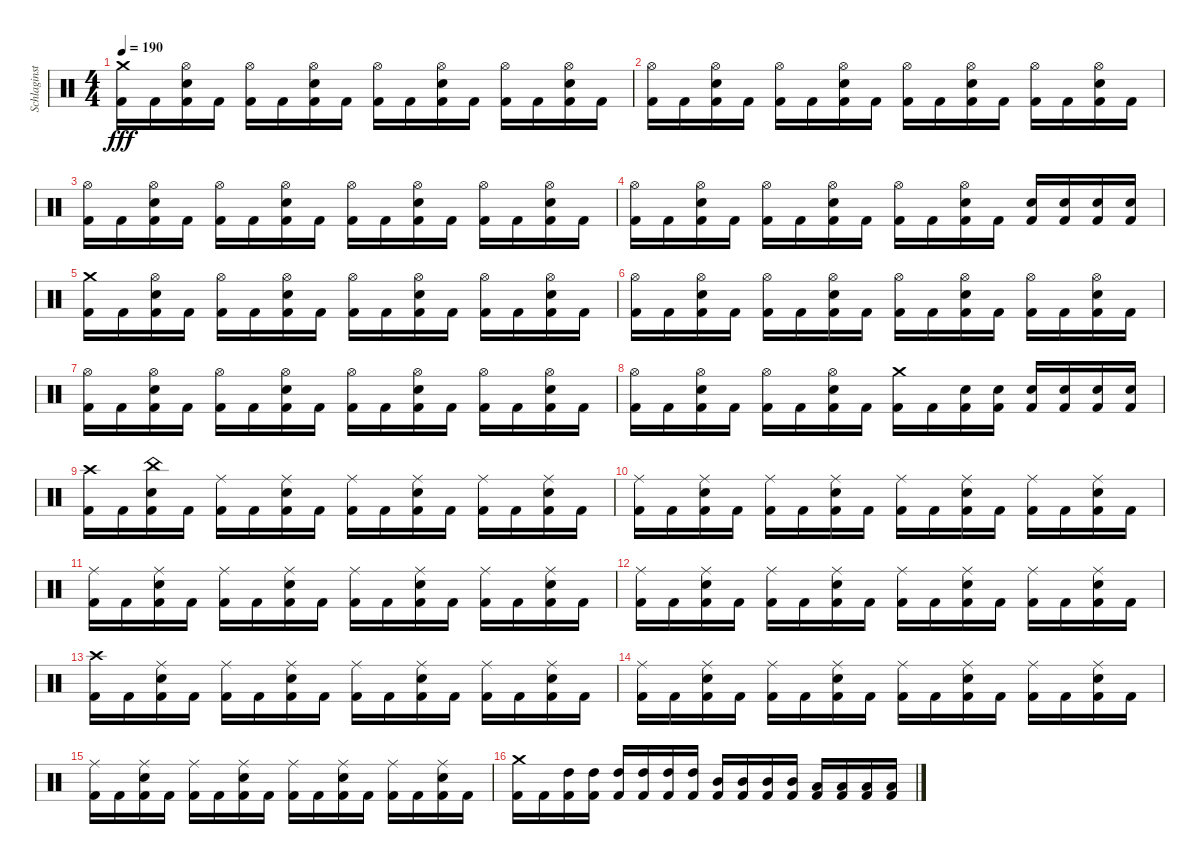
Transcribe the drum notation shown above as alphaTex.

\track ("Schlaginstrumente - Auswahl" "Schlaginst") {instrument percussion}
\staff {score}
\articulation defaults
\ts (4 4)
\tempo 190
\clef neutral
\ks c
("Crash medium (hit)" "Kick (hit) 2").16{dy fff} "Kick (hit) 2".16 ("Hi-Hat (open)" "Snare (hit) 2" "Kick (hit) 2").16 "Kick (hit) 2".16 ("Hi-Hat (open)" "Kick (hit) 2").16 "Kick (hit) 2".16 ("Hi-Hat (open)" "Snare (hit) 2" "Kick (hit) 2").16 "Kick (hit) 2".16 ("Hi-Hat (open)" "Kick (hit) 2").16 "Kick (hit) 2".16 ("Hi-Hat (open)" "Snare (hit) 2" "Kick (hit) 2").16 "Kick (hit) 2".16 ("Hi-Hat (open)" "Kick (hit) 2").16 "Kick (hit) 2".16 ("Hi-Hat (open)" "Snare (hit) 2" "Kick (hit) 2").16 "Kick (hit) 2".16 |
("Hi-Hat (open)" "Kick (hit) 2").16 "Kick (hit) 2".16 ("Hi-Hat (open)" "Snare (hit) 2" "Kick (hit) 2").16 "Kick (hit) 2".16 ("Hi-Hat (open)" "Kick (hit) 2").16 "Kick (hit) 2".16 ("Hi-Hat (open)" "Snare (hit) 2" "Kick (hit) 2").16 "Kick (hit) 2".16 ("Hi-Hat (open)" "Kick (hit) 2").16 "Kick (hit) 2".16 ("Hi-Hat (open)" "Snare (hit) 2" "Kick (hit) 2").16 "Kick (hit) 2".16 ("Hi-Hat (open)" "Kick (hit) 2").16 "Kick (hit) 2".16 ("Hi-Hat (open)" "Snare (hit) 2" "Kick (hit) 2").16 "Kick (hit) 2".16 |
("Hi-Hat (open)" "Kick (hit) 2").16 "Kick (hit) 2".16 ("Hi-Hat (open)" "Snare (hit) 2" "Kick (hit) 2").16 "Kick (hit) 2".16 ("Hi-Hat (open)" "Kick (hit) 2").16 "Kick (hit) 2".16 ("Hi-Hat (open)" "Snare (hit) 2" "Kick (hit) 2").16 "Kick (hit) 2".16 ("Hi-Hat (open)" "Kick (hit) 2").16 "Kick (hit) 2".16 ("Hi-Hat (open)" "Snare (hit) 2" "Kick (hit) 2").16 "Kick (hit) 2".16 ("Hi-Hat (open)" "Kick (hit) 2").16 "Kick (hit) 2".16 ("Hi-Hat (open)" "Snare (hit) 2" "Kick (hit) 2").16 "Kick (hit) 2".16 |
("Hi-Hat (open)" "Kick (hit) 2").16 "Kick (hit) 2".16 ("Hi-Hat (open)" "Snare (hit) 2" "Kick (hit) 2").16 "Kick (hit) 2".16 ("Hi-Hat (open)" "Kick (hit) 2").16 "Kick (hit) 2".16 ("Hi-Hat (open)" "Snare (hit) 2" "Kick (hit) 2").16 "Kick (hit) 2".16 ("Hi-Hat (open)" "Kick (hit) 2").16 "Kick (hit) 2".16 ("Hi-Hat (open)" "Snare (hit) 2" "Kick (hit) 2").16 "Kick (hit) 2".16 ("Snare (hit) 2" "Kick (hit) 2").16 ("Snare (hit) 2" "Kick (hit) 2").16 ("Snare (hit) 2" "Kick (hit) 2").16 ("Snare (hit) 2" "Kick (hit) 2").16 |
("Crash medium (hit)" "Kick (hit) 2").16 "Kick (hit) 2".16 ("Hi-Hat (open)" "Snare (hit) 2" "Kick (hit) 2").16 "Kick (hit) 2".16 ("Hi-Hat (open)" "Kick (hit) 2").16 "Kick (hit) 2".16 ("Hi-Hat (open)" "Snare (hit) 2" "Kick (hit) 2").16 "Kick (hit) 2".16 ("Hi-Hat (open)" "Kick (hit) 2").16 "Kick (hit) 2".16 ("Hi-Hat (open)" "Snare (hit) 2" "Kick (hit) 2").16 "Kick (hit) 2".16 ("Hi-Hat (open)" "Kick (hit) 2").16 "Kick (hit) 2".16 ("Hi-Hat (open)" "Snare (hit) 2" "Kick (hit) 2").16 "Kick (hit) 2".16 |
("Hi-Hat (open)" "Kick (hit) 2").16 "Kick (hit) 2".16 ("Hi-Hat (open)" "Snare (hit) 2" "Kick (hit) 2").16 "Kick (hit) 2".16 ("Hi-Hat (open)" "Kick (hit) 2").16 "Kick (hit) 2".16 ("Hi-Hat (open)" "Snare (hit) 2" "Kick (hit) 2").16 "Kick (hit) 2".16 ("Hi-Hat (open)" "Kick (hit) 2").16 "Kick (hit) 2".16 ("Hi-Hat (open)" "Snare (hit) 2" "Kick (hit) 2").16 "Kick (hit) 2".16 ("Hi-Hat (open)" "Kick (hit) 2").16 "Kick (hit) 2".16 ("Hi-Hat (open)" "Snare (hit) 2" "Kick (hit) 2").16 "Kick (hit) 2".16 |
("Hi-Hat (open)" "Kick (hit) 2").16 "Kick (hit) 2".16 ("Hi-Hat (open)" "Snare (hit) 2" "Kick (hit) 2").16 "Kick (hit) 2".16 ("Hi-Hat (open)" "Kick (hit) 2").16 "Kick (hit) 2".16 ("Hi-Hat (open)" "Snare (hit) 2" "Kick (hit) 2").16 "Kick (hit) 2".16 ("Hi-Hat (open)" "Kick (hit) 2").16 "Kick (hit) 2".16 ("Hi-Hat (open)" "Snare (hit) 2" "Kick (hit) 2").16 "Kick (hit) 2".16 ("Hi-Hat (open)" "Kick (hit) 2").16 "Kick (hit) 2".16 ("Hi-Hat (open)" "Snare (hit) 2" "Kick (hit) 2").16 "Kick (hit) 2".16 |
("Hi-Hat (open)" "Kick (hit) 2").16 "Kick (hit) 2".16 ("Hi-Hat (open)" "Snare (hit) 2" "Kick (hit) 2").16 "Kick (hit) 2".16 ("Hi-Hat (open)" "Kick (hit) 2").16 "Kick (hit) 2".16 ("Hi-Hat (open)" "Snare (hit) 2" "Kick (hit) 2").16 "Kick (hit) 2".16 ("Crash medium (hit)" "Kick (hit) 2").16 "Kick (hit) 2".16 ("Snare (hit) 2" "Kick (hit) 2").16 ("Snare (hit) 2" "Kick (hit) 2").16 ("Snare (hit) 2" "Kick (hit) 2").16 ("Snare (hit) 2" "Kick (hit) 2").16 ("Snare (hit) 2" "Kick (hit) 2").16 ("Snare (hit) 2" "Kick (hit) 2").16 |
("Crash high (hit)" "Kick (hit) 2").16 "Kick (hit) 2".16 ("China (hit)" "Snare (hit) 2" "Kick (hit) 2").16 "Kick (hit) 2".16 ("Ride (middle)" "Kick (hit) 2").16 "Kick (hit) 2".16 ("Ride (middle)" "Snare (hit) 2" "Kick (hit) 2").16 "Kick (hit) 2".16 ("Ride (middle)" "Kick (hit) 2").16 "Kick (hit) 2".16 ("Ride (middle)" "Snare (hit) 2" "Kick (hit) 2").16 "Kick (hit) 2".16 ("Ride (middle)" "Kick (hit) 2").16 "Kick (hit) 2".16 ("Ride (middle)" "Snare (hit) 2" "Kick (hit) 2").16 "Kick (hit) 2".16 |
("Ride (middle)" "Kick (hit) 2").16 "Kick (hit) 2".16 ("Ride (middle)" "Snare (hit) 2" "Kick (hit) 2").16 "Kick (hit) 2".16 ("Ride (middle)" "Kick (hit) 2").16 "Kick (hit) 2".16 ("Ride (middle)" "Snare (hit) 2" "Kick (hit) 2").16 "Kick (hit) 2".16 ("Ride (middle)" "Kick (hit) 2").16 "Kick (hit) 2".16 ("Ride (middle)" "Snare (hit) 2" "Kick (hit) 2").16 "Kick (hit) 2".16 ("Ride (middle)" "Kick (hit) 2").16 "Kick (hit) 2".16 ("Ride (middle)" "Snare (hit) 2" "Kick (hit) 2").16 "Kick (hit) 2".16 |
("Ride (middle)" "Kick (hit) 2").16 "Kick (hit) 2".16 ("Ride (middle)" "Snare (hit) 2" "Kick (hit) 2").16 "Kick (hit) 2".16 ("Ride (middle)" "Kick (hit) 2").16 "Kick (hit) 2".16 ("Ride (middle)" "Snare (hit) 2" "Kick (hit) 2").16 "Kick (hit) 2".16 ("Ride (middle)" "Kick (hit) 2").16 "Kick (hit) 2".16 ("Ride (middle)" "Snare (hit) 2" "Kick (hit) 2").16 "Kick (hit) 2".16 ("Ride (middle)" "Kick (hit) 2").16 "Kick (hit) 2".16 ("Ride (middle)" "Snare (hit) 2" "Kick (hit) 2").16 "Kick (hit) 2".16 |
("Ride (middle)" "Kick (hit) 2").16 "Kick (hit) 2".16 ("Ride (middle)" "Snare (hit) 2" "Kick (hit) 2").16 "Kick (hit) 2".16 ("Ride (middle)" "Kick (hit) 2").16 "Kick (hit) 2".16 ("Ride (middle)" "Snare (hit) 2" "Kick (hit) 2").16 "Kick (hit) 2".16 ("Ride (middle)" "Kick (hit) 2").16 "Kick (hit) 2".16 ("Ride (middle)" "Snare (hit) 2" "Kick (hit) 2").16 "Kick (hit) 2".16 ("Ride (middle)" "Kick (hit) 2").16 "Kick (hit) 2".16 ("Ride (middle)" "Snare (hit) 2" "Kick (hit) 2").16 "Kick (hit) 2".16 |
("Crash high (hit)" "Kick (hit) 2").16 "Kick (hit) 2".16 ("Ride (middle)" "Snare (hit) 2" "Kick (hit) 2").16 "Kick (hit) 2".16 ("Ride (middle)" "Kick (hit) 2").16 "Kick (hit) 2".16 ("Ride (middle)" "Snare (hit) 2" "Kick (hit) 2").16 "Kick (hit) 2".16 ("Ride (middle)" "Kick (hit) 2").16 "Kick (hit) 2".16 ("Ride (middle)" "Snare (hit) 2" "Kick (hit) 2").16 "Kick (hit) 2".16 ("Ride (middle)" "Kick (hit) 2").16 "Kick (hit) 2".16 ("Ride (middle)" "Snare (hit) 2" "Kick (hit) 2").16 "Kick (hit) 2".16 |
("Ride (middle)" "Kick (hit) 2").16 "Kick (hit) 2".16 ("Ride (middle)" "Snare (hit) 2" "Kick (hit) 2").16 "Kick (hit) 2".16 ("Ride (middle)" "Kick (hit) 2").16 "Kick (hit) 2".16 ("Ride (middle)" "Snare (hit) 2" "Kick (hit) 2").16 "Kick (hit) 2".16 ("Ride (middle)" "Kick (hit) 2").16 "Kick (hit) 2".16 ("Ride (middle)" "Snare (hit) 2" "Kick (hit) 2").16 "Kick (hit) 2".16 ("Ride (middle)" "Kick (hit) 2").16 "Kick (hit) 2".16 ("Ride (middle)" "Snare (hit) 2" "Kick (hit) 2").16 "Kick (hit) 2".16 |
("Ride (middle)" "Kick (hit) 2").16 "Kick (hit) 2".16 ("Ride (middle)" "Snare (hit) 2" "Kick (hit) 2").16 "Kick (hit) 2".16 ("Ride (middle)" "Kick (hit) 2").16 "Kick (hit) 2".16 ("Ride (middle)" "Snare (hit) 2" "Kick (hit) 2").16 "Kick (hit) 2".16 ("Ride (middle)" "Kick (hit) 2").16 "Kick (hit) 2".16 ("Ride (middle)" "Snare (hit) 2" "Kick (hit) 2").16 "Kick (hit) 2".16 ("Ride (middle)" "Kick (hit) 2").16 "Kick (hit) 2".16 ("Ride (middle)" "Snare (hit) 2" "Kick (hit) 2").16 "Kick (hit) 2".16 |
("Crash medium (hit)" "Kick (hit) 2").16 "Kick (hit) 2".16 ("High Tom (hit)" "Kick (hit) 2").16 ("High Tom (hit)" "Kick (hit) 2").16 ("High Tom (hit)" "Kick (hit) 2").16 ("High Tom (hit)" "Kick (hit) 2").16 ("High Tom (hit)" "Kick (hit) 2").16 ("High Tom (hit)" "Kick (hit) 2").16 ("Mid Tom (hit)" "Kick (hit) 2").16 ("Mid Tom (hit)" "Kick (hit) 2").16 ("Mid Tom (hit)" "Kick (hit) 2").16 ("Mid Tom (hit)" "Kick (hit) 2").16 ("Low Tom (hit)" "Kick (hit) 2").16 ("Low Tom (hit)" "Kick (hit) 2").16 ("Low Tom (hit)" "Kick (hit) 2").16 ("Low Tom (hit)" "Kick (hit) 2").16
